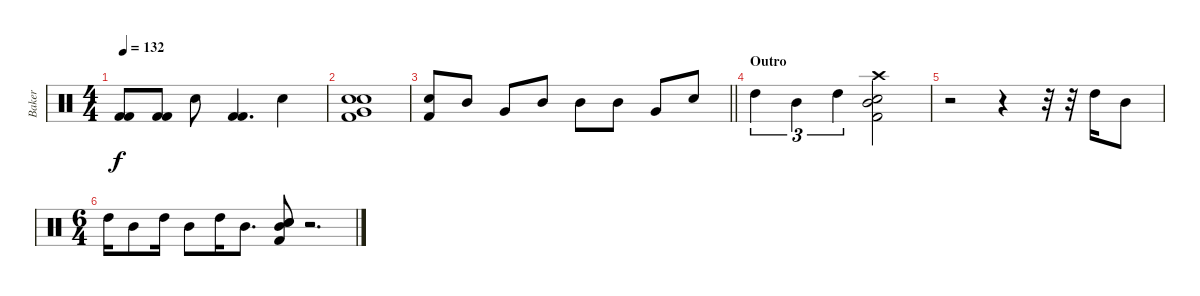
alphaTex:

\track ("Baker" "Baker") {instrument percussion}
\staff {score}
\articulation defaults
\ts (4 4)
\tempo 132
\clef neutral
\ks c
("Kick (hit) 2" "Kick (hit) 2").8{dy f} ("Kick (hit) 2" "Kick (hit) 2").8 "Snare (hit) 2".8 ("Kick (hit) 2" "Kick (hit) 2").4{d} "Snare (hit) 2".4 |
("Very Low Tom (hit)" "Snare (hit) 2" "Electric Snare (hit)" "Kick (hit) 2").1 |
\barLineRight lightlight
("Electric Snare (hit)" "Kick (hit) 2").8 "Mid Tom (hit)".8 "Very Low Tom (hit)".8 "Mid Tom (hit)".8 "Mid Tom (hit)".8 "Mid Tom (hit)".8 "Very Low Tom (hit)".8 "Snare (hit) 2".8 |
\section ("" "Outro")
"High Tom (hit)".4{tu (3 2)} "Mid Tom (hit)".4{tu (3 2)} "High Tom (hit)".4{tu (3 2)} ("Snare (hit) 2" "Mid Tom (hit)" "Crash high (hit)" "Kick (hit) 2").2 |
r.2 r.4 r.32 r.32 "High Tom (hit)".16 "Mid Tom (hit)".8 |
\ts (6 4)
"High Tom (hit)".16 "Mid Tom (hit)".8 "High Tom (hit)".16 "Mid Tom (hit)".8 "High Tom (hit)".16 "Mid Tom (hit)".8{d} ("Snare (hit) 2" "Electric Snare (hit)" "Mid Tom (hit)" "Kick (hit) 2").8 r.2{d}
